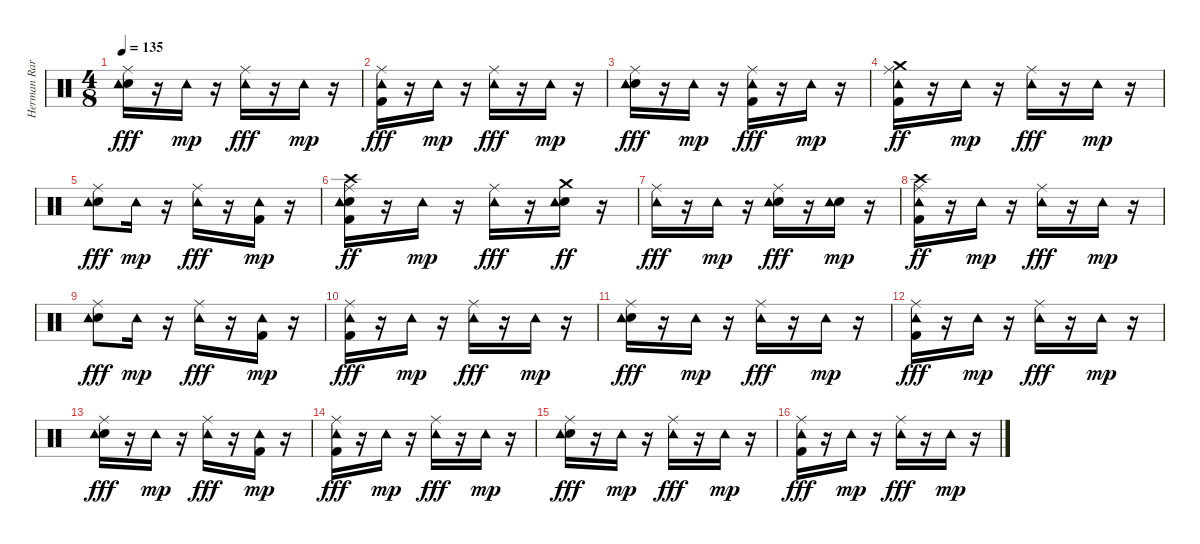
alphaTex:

\track ("Herman Rarebell" "Herman Rar") {instrument percussion}
\staff {score}
\articulation defaults
\ts (4 8)
\tempo 135
\clef neutral
\ks c
("Snare (hit) 2" "Ride (middle)" "Tambourine (hit)").16{dy fff} r.16 "Tambourine (hit)".16{dy mp} r.16 ("Ride (middle)" "Tambourine (hit)").16{dy fff} r.16 "Tambourine (hit)".16{dy mp} r.16 |
("Kick (hit) 2" "Ride (middle)" "Tambourine (hit)").16{dy fff} r.16 "Tambourine (hit)".16{dy mp} r.16 ("Ride (middle)" "Tambourine (hit)").16{dy fff} r.16 "Tambourine (hit)".16{dy mp} r.16 |
("Snare (hit) 2" "Ride (middle)" "Tambourine (hit)").16{dy fff} r.16 "Tambourine (hit)".16{dy mp} r.16 ("Kick (hit) 2" "Ride (middle)" "Tambourine (hit)").16{dy fff} r.16 "Tambourine (hit)".16{dy mp} r.16 |
("Kick (hit) 2" "Ride (middle)" "Tambourine (hit)" "Crash medium (hit)").16{dy ff} r.16 "Tambourine (hit)".16{dy mp} r.16 ("Ride (middle)" "Tambourine (hit)").16{dy fff} r.16 "Tambourine (hit)".16{dy mp} r.16 |
("Snare (hit) 2" "Ride (middle)" "Tambourine (hit)").8{dy fff} "Tambourine (hit)".16{dy mp} r.16 ("Ride (middle)" "Tambourine (hit)").16{dy fff} r.16 ("Kick (hit) 2" "Tambourine (hit)").16{dy mp} r.16 |
("Kick (hit) 2" "Snare (hit) 2" "Ride (middle)" "Tambourine (hit)" "Crash high (hit)").16{dy ff} r.16 "Tambourine (hit)".16{dy mp} r.16 ("Ride (middle)" "Tambourine (hit)").16{dy fff} r.16 ("Snare (hit) 2" "Tambourine (hit)" "Crash medium (hit)").16{dy ff} r.16 |
("Ride (middle)" "Tambourine (hit)").16{dy fff} r.16 "Tambourine (hit)".16{dy mp} r.16 ("Snare (hit) 2" "Ride (middle)" "Tambourine (hit)").16{dy fff} r.16 ("Snare (hit) 2" "Tambourine (hit)").16{dy mp} r.16 |
("Kick (hit) 2" "Ride (middle)" "Tambourine (hit)" "Crash high (hit)").16{dy ff} r.16 "Tambourine (hit)".16{dy mp} r.16 ("Ride (middle)" "Tambourine (hit)").16{dy fff} r.16 "Tambourine (hit)".16{dy mp} r.16 |
("Snare (hit) 2" "Ride (middle)" "Tambourine (hit)").8{dy fff} "Tambourine (hit)".16{dy mp} r.16 ("Ride (middle)" "Tambourine (hit)").16{dy fff} r.16 ("Kick (hit) 2" "Tambourine (hit)").16{dy mp} r.16 |
("Kick (hit) 2" "Ride (middle)" "Tambourine (hit)").16{dy fff} r.16 "Tambourine (hit)".16{dy mp} r.16 ("Ride (middle)" "Tambourine (hit)").16{dy fff} r.16 "Tambourine (hit)".16{dy mp} r.16 |
("Snare (hit) 2" "Ride (middle)" "Tambourine (hit)").16{dy fff} r.16 "Tambourine (hit)".16{dy mp} r.16 ("Ride (middle)" "Tambourine (hit)").16{dy fff} r.16 "Tambourine (hit)".16{dy mp} r.16 |
("Kick (hit) 2" "Ride (middle)" "Tambourine (hit)").16{dy fff} r.16 "Tambourine (hit)".16{dy mp} r.16 ("Ride (middle)" "Tambourine (hit)").16{dy fff} r.16 "Tambourine (hit)".16{dy mp} r.16 |
("Snare (hit) 2" "Ride (middle)" "Tambourine (hit)").16{dy fff} r.16 "Tambourine (hit)".16{dy mp} r.16 ("Ride (middle)" "Tambourine (hit)").16{dy fff} r.16 ("Kick (hit) 2" "Tambourine (hit)").16{dy mp} r.16 |
("Kick (hit) 2" "Ride (middle)" "Tambourine (hit)").16{dy fff} r.16 "Tambourine (hit)".16{dy mp} r.16 ("Ride (middle)" "Tambourine (hit)").16{dy fff} r.16 "Tambourine (hit)".16{dy mp} r.16 |
("Snare (hit) 2" "Ride (middle)" "Tambourine (hit)").16{dy fff} r.16 "Tambourine (hit)".16{dy mp} r.16 ("Ride (middle)" "Tambourine (hit)").16{dy fff} r.16 "Tambourine (hit)".16{dy mp} r.16 |
("Kick (hit) 2" "Ride (middle)" "Tambourine (hit)").16{dy fff} r.16 "Tambourine (hit)".16{dy mp} r.16 ("Ride (middle)" "Tambourine (hit)").16{dy fff} r.16 "Tambourine (hit)".16{dy mp} r.16
